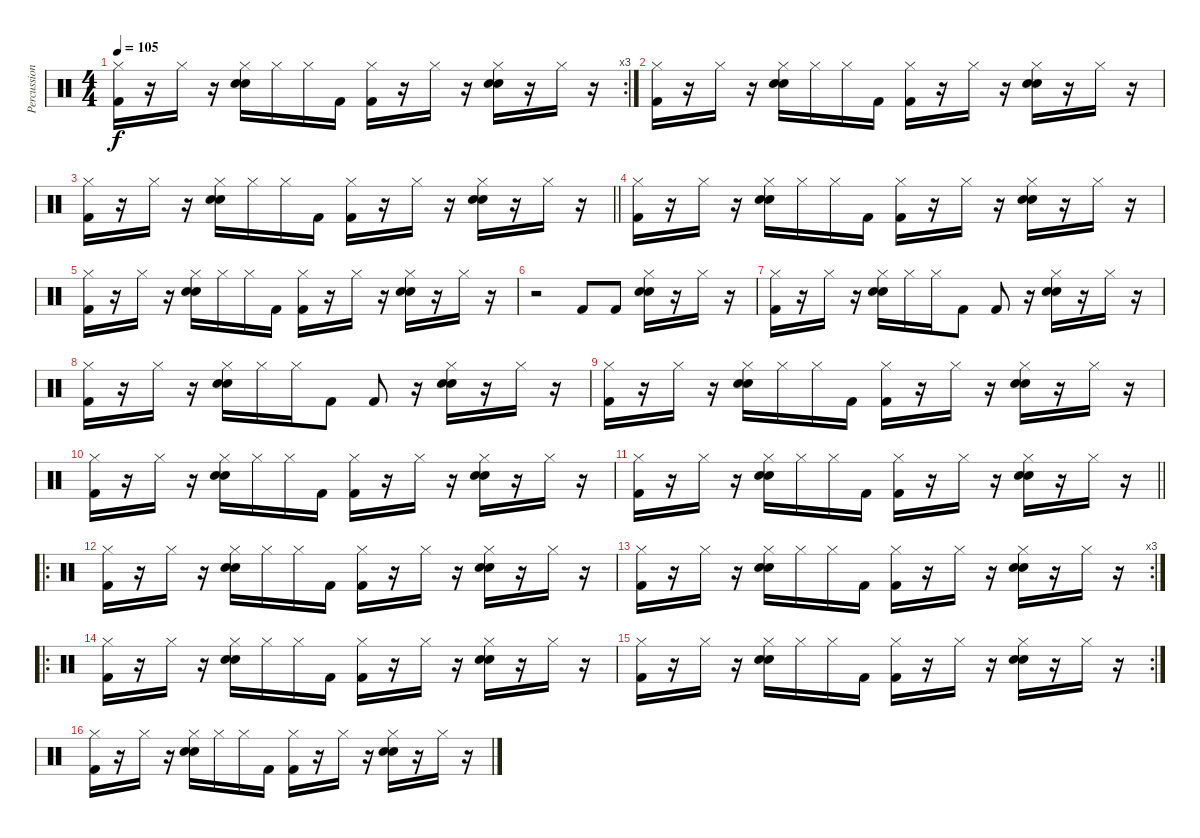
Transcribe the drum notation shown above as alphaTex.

\track ("Percussion" "Percussion") {instrument percussion}
\staff {score}
\articulation defaults
\rc 3
\ts (4 4)
\tempo 105
\clef neutral
\ks c
("Hi-Hat (closed)" "Kick (hit) 2").16{dy f} r.16 "Hi-Hat (closed)".16 r.16 ("Hi-Hat (closed)" "Snare (hit) 2" "Hand Clap (hit)").16 "Hi-Hat (closed)".16 "Hi-Hat (closed)".16 "Kick (hit) 2".16 ("Hi-Hat (closed)" "Kick (hit) 2").16 r.16 "Hi-Hat (closed)".16 r.16 ("Hi-Hat (closed)" "Snare (hit) 2" "Hand Clap (hit)").16 r.16 "Hi-Hat (closed)".16 r.16 |
("Hi-Hat (closed)" "Kick (hit) 2").16 r.16 "Hi-Hat (closed)".16 r.16 ("Hi-Hat (closed)" "Snare (hit) 2" "Hand Clap (hit)").16 "Hi-Hat (closed)".16 "Hi-Hat (closed)".16 "Kick (hit) 2".16 ("Hi-Hat (closed)" "Kick (hit) 2").16 r.16 "Hi-Hat (closed)".16 r.16 ("Hi-Hat (closed)" "Snare (hit) 2" "Hand Clap (hit)").16 r.16 "Hi-Hat (closed)".16 r.16 |
\barLineRight lightlight
("Hi-Hat (closed)" "Kick (hit) 2").16 r.16 "Hi-Hat (closed)".16 r.16 ("Hi-Hat (closed)" "Snare (hit) 2" "Hand Clap (hit)").16 "Hi-Hat (closed)".16 "Hi-Hat (closed)".16 "Kick (hit) 2".16 ("Hi-Hat (closed)" "Kick (hit) 2").16 r.16 "Hi-Hat (closed)".16 r.16 ("Hi-Hat (closed)" "Snare (hit) 2" "Hand Clap (hit)").16 r.16 "Hi-Hat (closed)".16 r.16 |
("Hi-Hat (closed)" "Kick (hit) 2").16 r.16 "Hi-Hat (closed)".16 r.16 ("Hi-Hat (closed)" "Snare (hit) 2" "Hand Clap (hit)").16 "Hi-Hat (closed)".16 "Hi-Hat (closed)".16 "Kick (hit) 2".16 ("Hi-Hat (closed)" "Kick (hit) 2").16 r.16 "Hi-Hat (closed)".16 r.16 ("Hi-Hat (closed)" "Snare (hit) 2" "Hand Clap (hit)").16 r.16 "Hi-Hat (closed)".16 r.16 |
("Hi-Hat (closed)" "Kick (hit) 2").16 r.16 "Hi-Hat (closed)".16 r.16 ("Hi-Hat (closed)" "Snare (hit) 2" "Hand Clap (hit)").16 "Hi-Hat (closed)".16 "Hi-Hat (closed)".16 "Kick (hit) 2".16 ("Hi-Hat (closed)" "Kick (hit) 2").16 r.16 "Hi-Hat (closed)".16 r.16 ("Hi-Hat (closed)" "Snare (hit) 2" "Hand Clap (hit)").16 r.16 "Hi-Hat (closed)".16 r.16 |
r.2 "Kick (hit) 2".8 "Kick (hit) 2".8 ("Hi-Hat (closed)" "Snare (hit) 2" "Hand Clap (hit)").16 r.16 "Hi-Hat (closed)".16 r.16 |
("Hi-Hat (closed)" "Kick (hit) 2").16 r.16 "Hi-Hat (closed)".16 r.16 ("Hi-Hat (closed)" "Snare (hit) 2" "Hand Clap (hit)").16 "Hi-Hat (closed)".16 "Hi-Hat (closed)".16 "Kick (hit) 2".8 "Kick (hit) 2".8 r.16 ("Hi-Hat (closed)" "Snare (hit) 2" "Hand Clap (hit)").16 r.16 "Hi-Hat (closed)".16 r.16 |
("Hi-Hat (closed)" "Kick (hit) 2").16 r.16 "Hi-Hat (closed)".16 r.16 ("Hi-Hat (closed)" "Snare (hit) 2" "Hand Clap (hit)").16 "Hi-Hat (closed)".16 "Hi-Hat (closed)".16 "Kick (hit) 2".8 "Kick (hit) 2".8 r.16 ("Hi-Hat (closed)" "Snare (hit) 2" "Hand Clap (hit)").16 r.16 "Hi-Hat (closed)".16 r.16 |
("Hi-Hat (closed)" "Kick (hit) 2").16 r.16 "Hi-Hat (closed)".16 r.16 ("Hi-Hat (closed)" "Snare (hit) 2" "Hand Clap (hit)").16 "Hi-Hat (closed)".16 "Hi-Hat (closed)".16 "Kick (hit) 2".16 ("Hi-Hat (closed)" "Kick (hit) 2").16 r.16 "Hi-Hat (closed)".16 r.16 ("Hi-Hat (closed)" "Snare (hit) 2" "Hand Clap (hit)").16 r.16 "Hi-Hat (closed)".16 r.16 |
("Hi-Hat (closed)" "Kick (hit) 2").16 r.16 "Hi-Hat (closed)".16 r.16 ("Hi-Hat (closed)" "Snare (hit) 2" "Hand Clap (hit)").16 "Hi-Hat (closed)".16 "Hi-Hat (closed)".16 "Kick (hit) 2".16 ("Hi-Hat (closed)" "Kick (hit) 2").16 r.16 "Hi-Hat (closed)".16 r.16 ("Hi-Hat (closed)" "Snare (hit) 2" "Hand Clap (hit)").16 r.16 "Hi-Hat (closed)".16 r.16 |
\barLineRight lightlight
("Hi-Hat (closed)" "Kick (hit) 2").16 r.16 "Hi-Hat (closed)".16 r.16 ("Hi-Hat (closed)" "Snare (hit) 2" "Hand Clap (hit)").16 "Hi-Hat (closed)".16 "Hi-Hat (closed)".16 "Kick (hit) 2".16 ("Hi-Hat (closed)" "Kick (hit) 2").16 r.16 "Hi-Hat (closed)".16 r.16 ("Hi-Hat (closed)" "Snare (hit) 2" "Hand Clap (hit)").16 r.16 "Hi-Hat (closed)".16 r.16 |
\ro
("Hi-Hat (closed)" "Kick (hit) 2").16 r.16 "Hi-Hat (closed)".16 r.16 ("Hi-Hat (closed)" "Snare (hit) 2" "Hand Clap (hit)").16 "Hi-Hat (closed)".16 "Hi-Hat (closed)".16 "Kick (hit) 2".16 ("Hi-Hat (closed)" "Kick (hit) 2").16 r.16 "Hi-Hat (closed)".16 r.16 ("Hi-Hat (closed)" "Snare (hit) 2" "Hand Clap (hit)").16 r.16 "Hi-Hat (closed)".16 r.16 |
\rc 3
("Hi-Hat (closed)" "Kick (hit) 2").16 r.16 "Hi-Hat (closed)".16 r.16 ("Hi-Hat (closed)" "Snare (hit) 2" "Hand Clap (hit)").16 "Hi-Hat (closed)".16 "Hi-Hat (closed)".16 "Kick (hit) 2".16 ("Hi-Hat (closed)" "Kick (hit) 2").16 r.16 "Hi-Hat (closed)".16 r.16 ("Hi-Hat (closed)" "Snare (hit) 2" "Hand Clap (hit)").16 r.16 "Hi-Hat (closed)".16 r.16 |
\ro
("Hi-Hat (closed)" "Kick (hit) 2").16 r.16 "Hi-Hat (closed)".16 r.16 ("Hi-Hat (closed)" "Snare (hit) 2" "Hand Clap (hit)").16 "Hi-Hat (closed)".16 "Hi-Hat (closed)".16 "Kick (hit) 2".16 ("Hi-Hat (closed)" "Kick (hit) 2").16 r.16 "Hi-Hat (closed)".16 r.16 ("Hi-Hat (closed)" "Snare (hit) 2" "Hand Clap (hit)").16 r.16 "Hi-Hat (closed)".16 r.16 |
\rc 2
("Hi-Hat (closed)" "Kick (hit) 2").16 r.16 "Hi-Hat (closed)".16 r.16 ("Hi-Hat (closed)" "Snare (hit) 2" "Hand Clap (hit)").16 "Hi-Hat (closed)".16 "Hi-Hat (closed)".16 "Kick (hit) 2".16 ("Hi-Hat (closed)" "Kick (hit) 2").16 r.16 "Hi-Hat (closed)".16 r.16 ("Hi-Hat (closed)" "Snare (hit) 2" "Hand Clap (hit)").16 r.16 "Hi-Hat (closed)".16 r.16 |
("Hi-Hat (closed)" "Kick (hit) 2").16 r.16 "Hi-Hat (closed)".16 r.16 ("Hi-Hat (closed)" "Snare (hit) 2" "Hand Clap (hit)").16 "Hi-Hat (closed)".16 "Hi-Hat (closed)".16 "Kick (hit) 2".16 ("Hi-Hat (closed)" "Kick (hit) 2").16 r.16 "Hi-Hat (closed)".16 r.16 ("Hi-Hat (closed)" "Snare (hit) 2" "Hand Clap (hit)").16 r.16 "Hi-Hat (closed)".16 r.16
